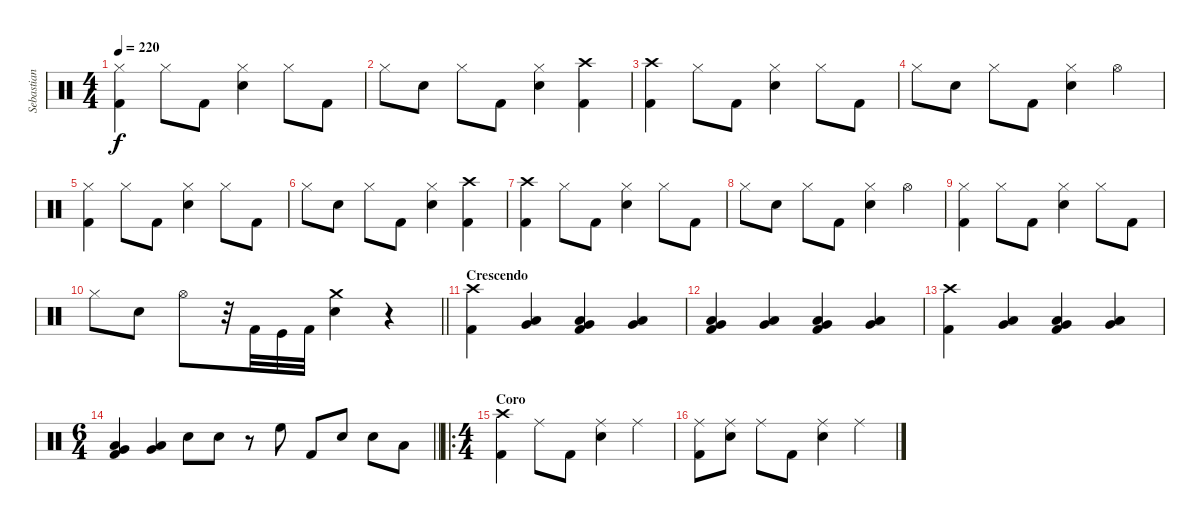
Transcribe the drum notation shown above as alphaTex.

\track ("Sebastian" "Sebastian") {instrument percussion}
\staff {score}
\articulation defaults
\ts (4 4)
\tempo 220
\clef neutral
\ks c
("Hi-Hat (closed)" "Kick (hit) 2").4{dy f} "Hi-Hat (closed)".8 "Kick (hit) 2".8 ("Hi-Hat (closed)" "Snare (hit) 2").4 "Hi-Hat (closed)".8 "Kick (hit) 2".8 |
"Hi-Hat (closed)".8 "Snare (hit) 2".8 "Hi-Hat (closed)".8 "Kick (hit) 2".8 ("Hi-Hat (closed)" "Snare (hit) 2").4 ("Crash high (hit)" "Kick (hit) 2").4 |
("Crash high (hit)" "Kick (hit) 2").4 "Hi-Hat (closed)".8 "Kick (hit) 2".8 ("Hi-Hat (closed)" "Snare (hit) 2").4 "Hi-Hat (closed)".8 "Kick (hit) 2".8 |
"Hi-Hat (closed)".8 "Snare (hit) 2".8 "Hi-Hat (closed)".8 "Kick (hit) 2".8 ("Hi-Hat (closed)" "Snare (hit) 2").4 "Hi-Hat (open)".4 |
("Hi-Hat (closed)" "Kick (hit) 2").4 "Hi-Hat (closed)".8 "Kick (hit) 2".8 ("Hi-Hat (closed)" "Snare (hit) 2").4 "Hi-Hat (closed)".8 "Kick (hit) 2".8 |
"Hi-Hat (closed)".8 "Snare (hit) 2".8 "Hi-Hat (closed)".8 "Kick (hit) 2".8 ("Hi-Hat (closed)" "Snare (hit) 2").4 ("Crash high (hit)" "Kick (hit) 2").4 |
("Crash high (hit)" "Kick (hit) 2").4 "Hi-Hat (closed)".8 "Kick (hit) 2".8 ("Hi-Hat (closed)" "Snare (hit) 2").4 "Hi-Hat (closed)".8 "Kick (hit) 2".8 |
"Hi-Hat (closed)".8 "Snare (hit) 2".8 "Hi-Hat (closed)".8 "Kick (hit) 2".8 ("Hi-Hat (closed)" "Snare (hit) 2").4 "Hi-Hat (open)".4 |
("Hi-Hat (closed)" "Kick (hit) 2").4 "Hi-Hat (closed)".8 "Kick (hit) 2".8 ("Hi-Hat (closed)" "Snare (hit) 2").4 "Hi-Hat (closed)".8 "Kick (hit) 2".8 |
\barLineRight lightlight "Hi-Hat (closed)".8 "Snare (hit) 2".8 "Hi-Hat (open)".8
r.32 "Kick (hit) 2".32 "Kick (hit)".32 "Kick (hit) 2".32 ("Crash medium (hit)" "Snare (hit) 2").4 r.4 |
\section ("" "Crescendo")
("Crash high (hit)" "Kick (hit) 2").4 ("Low Tom (hit)" "Very Low Tom (hit)").4 ("Low Tom (hit)" "Very Low Tom (hit)" "Kick (hit) 2").4 ("Low Tom (hit)" "Very Low Tom (hit)").4 |
("Low Tom (hit)" "Very Low Tom (hit)" "Kick (hit) 2").4 ("Low Tom (hit)" "Very Low Tom (hit)").4 ("Low Tom (hit)" "Very Low Tom (hit)" "Kick (hit) 2").4 ("Low Tom (hit)" "Very Low Tom (hit)").4 |
("Crash high (hit)" "Kick (hit) 2").4 ("Low Tom (hit)" "Very Low Tom (hit)").4 ("Low Tom (hit)" "Very Low Tom (hit)" "Kick (hit) 2").4 ("Low Tom (hit)" "Very Low Tom (hit)").4 |
\ts (6 4)
\barLineRight lightlight
("Low Tom (hit)" "Very Low Tom (hit)" "Kick (hit) 2").4 ("Low Tom (hit)" "Very Low Tom (hit)").4 "Snare (hit) 2".8 "Snare (hit) 2".8 r.8 "High Floor Tom (hit)".8 "Kick (hit) 2".8 "Snare (hit) 2".8 "Snare (hit) 2".8 "Low Tom (hit)".8 |
\ro
\ts (4 4)
\section ("" "Coro")
("Crash high (hit)" "Kick (hit) 2").4 "Ride (middle)".8 "Kick (hit) 2".8 ("Ride (middle)" "Snare (hit) 2").4 "Ride (middle)".4 |
("Ride (middle)" "Kick (hit) 2").8 ("Ride (middle)" "Snare (hit) 2").8 "Ride (middle)".8 "Kick (hit) 2".8 ("Ride (middle)" "Snare (hit) 2").4 "Ride (middle)".4
